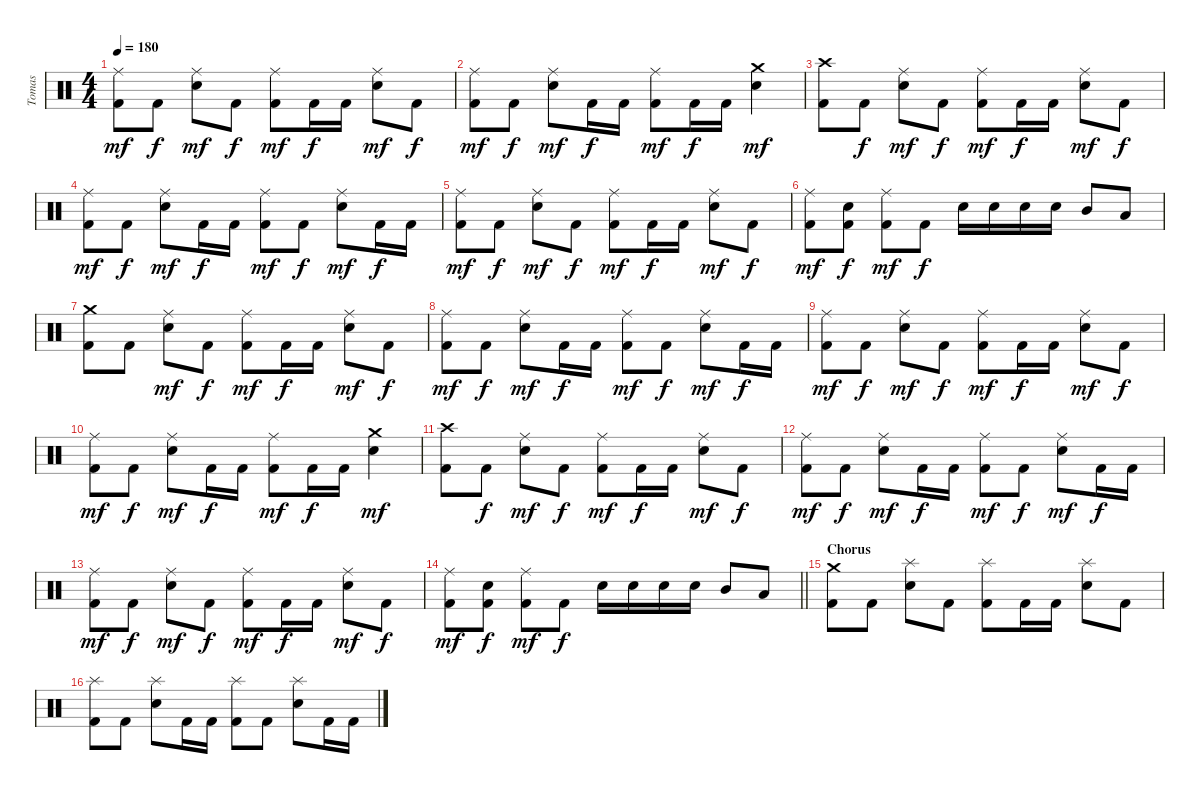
\track ("Tomas" "Tomas") {instrument percussion}
\staff {score}
\articulation defaults
\ts (4 4)
\tempo 180
\clef neutral
\ks c
("Kick (hit) 2" "Ride (middle)").8{dy mf} "Kick (hit) 2".8{dy f} ("Electric Snare (hit)" "Ride (middle)").8{dy mf} "Kick (hit) 2".8{dy f} ("Kick (hit) 2" "Ride (middle)").8{dy mf} "Kick (hit) 2".16{dy f} "Kick (hit) 2".16 ("Electric Snare (hit)" "Ride (middle)").8{dy mf} "Kick (hit) 2".8{dy f} |
("Kick (hit) 2" "Ride (middle)").8{dy mf} "Kick (hit) 2".8{dy f} ("Electric Snare (hit)" "Ride (middle)").8{dy mf} "Kick (hit) 2".16{dy f} "Kick (hit) 2".16 ("Kick (hit) 2" "Ride (middle)").8{dy mf} "Kick (hit) 2".16{dy f} "Kick (hit) 2".16 ("Electric Snare (hit)" "Crash medium (hit)").4{dy mf} |
("Kick (hit) 2" "Crash high (hit)").8 "Kick (hit) 2".8{dy f} ("Electric Snare (hit)" "Ride (middle)").8{dy mf} "Kick (hit) 2".8{dy f} ("Kick (hit) 2" "Ride (middle)").8{dy mf} "Kick (hit) 2".16{dy f} "Kick (hit) 2".16 ("Electric Snare (hit)" "Ride (middle)").8{dy mf} "Kick (hit) 2".8{dy f} |
("Kick (hit) 2" "Ride (middle)").8{dy mf} "Kick (hit) 2".8{dy f} ("Electric Snare (hit)" "Ride (middle)").8{dy mf} "Kick (hit) 2".16{dy f} "Kick (hit) 2".16 ("Kick (hit) 2" "Ride (middle)").8{dy mf} "Kick (hit) 2".8{dy f} ("Electric Snare (hit)" "Ride (middle)").8{dy mf} "Kick (hit) 2".16{dy f} "Kick (hit) 2".16 |
("Kick (hit) 2" "Ride (middle)").8{dy mf} "Kick (hit) 2".8{dy f} ("Electric Snare (hit)" "Ride (middle)").8{dy mf} "Kick (hit) 2".8{dy f} ("Kick (hit) 2" "Ride (middle)").8{dy mf} "Kick (hit) 2".16{dy f} "Kick (hit) 2".16 ("Electric Snare (hit)" "Ride (middle)").8{dy mf} "Kick (hit) 2".8{dy f} |
("Kick (hit) 2" "Ride (middle)").8{dy mf} ("Kick (hit) 2" "Electric Snare (hit)").8{dy f} ("Kick (hit) 2" "Ride (middle)").8{dy mf} "Kick (hit) 2".8{dy f} "Electric Snare (hit)".16 "Electric Snare (hit)".16 "Electric Snare (hit)".16 "Electric Snare (hit)".16 "Mid Tom (hit)".8 "Low Tom (hit)".8 |
("Kick (hit) 2" "Crash medium (hit)").8 "Kick (hit) 2".8 ("Electric Snare (hit)" "Ride (middle)").8{dy mf} "Kick (hit) 2".8{dy f} ("Kick (hit) 2" "Ride (middle)").8{dy mf} "Kick (hit) 2".16{dy f} "Kick (hit) 2".16 ("Electric Snare (hit)" "Ride (middle)").8{dy mf} "Kick (hit) 2".8{dy f} |
("Kick (hit) 2" "Ride (middle)").8{dy mf} "Kick (hit) 2".8{dy f} ("Electric Snare (hit)" "Ride (middle)").8{dy mf} "Kick (hit) 2".16{dy f} "Kick (hit) 2".16 ("Kick (hit) 2" "Ride (middle)").8{dy mf} "Kick (hit) 2".8{dy f} ("Electric Snare (hit)" "Ride (middle)").8{dy mf} "Kick (hit) 2".16{dy f} "Kick (hit) 2".16 |
("Kick (hit) 2" "Ride (middle)").8{dy mf} "Kick (hit) 2".8{dy f} ("Electric Snare (hit)" "Ride (middle)").8{dy mf} "Kick (hit) 2".8{dy f} ("Kick (hit) 2" "Ride (middle)").8{dy mf} "Kick (hit) 2".16{dy f} "Kick (hit) 2".16 ("Electric Snare (hit)" "Ride (middle)").8{dy mf} "Kick (hit) 2".8{dy f} |
("Kick (hit) 2" "Ride (middle)").8{dy mf} "Kick (hit) 2".8{dy f} ("Electric Snare (hit)" "Ride (middle)").8{dy mf} "Kick (hit) 2".16{dy f} "Kick (hit) 2".16 ("Kick (hit) 2" "Ride (middle)").8{dy mf} "Kick (hit) 2".16{dy f} "Kick (hit) 2".16 ("Electric Snare (hit)" "Crash medium (hit)").4{dy mf} |
("Kick (hit) 2" "Crash high (hit)").8 "Kick (hit) 2".8{dy f} ("Electric Snare (hit)" "Ride (middle)").8{dy mf} "Kick (hit) 2".8{dy f} ("Kick (hit) 2" "Ride (middle)").8{dy mf} "Kick (hit) 2".16{dy f} "Kick (hit) 2".16 ("Electric Snare (hit)" "Ride (middle)").8{dy mf} "Kick (hit) 2".8{dy f} |
("Kick (hit) 2" "Ride (middle)").8{dy mf} "Kick (hit) 2".8{dy f} ("Electric Snare (hit)" "Ride (middle)").8{dy mf} "Kick (hit) 2".16{dy f} "Kick (hit) 2".16 ("Kick (hit) 2" "Ride (middle)").8{dy mf} "Kick (hit) 2".8{dy f} ("Electric Snare (hit)" "Ride (middle)").8{dy mf} "Kick (hit) 2".16{dy f} "Kick (hit) 2".16 |
("Kick (hit) 2" "Ride (middle)").8{dy mf} "Kick (hit) 2".8{dy f} ("Electric Snare (hit)" "Ride (middle)").8{dy mf} "Kick (hit) 2".8{dy f} ("Kick (hit) 2" "Ride (middle)").8{dy mf} "Kick (hit) 2".16{dy f} "Kick (hit) 2".16 ("Electric Snare (hit)" "Ride (middle)").8{dy mf} "Kick (hit) 2".8{dy f} |
\barLineRight lightlight
("Kick (hit) 2" "Ride (middle)").8{dy mf} ("Kick (hit) 2" "Electric Snare (hit)").8{dy f} ("Kick (hit) 2" "Ride (middle)").8{dy mf} "Kick (hit) 2".8{dy f} "Electric Snare (hit)".16 "Electric Snare (hit)".16 "Electric Snare (hit)".16 "Electric Snare (hit)".16 "Mid Tom (hit)".8 "Low Tom (hit)".8 |
\section ("" "Chorus")
("Kick (hit) 2" "Crash medium (hit)").8 "Kick (hit) 2".8 ("Electric Snare (hit)" "Splash (hit)").8 "Kick (hit) 2".8 ("Kick (hit) 2" "Splash (hit)").8 "Kick (hit) 2".16 "Kick (hit) 2".16 ("Electric Snare (hit)" "Splash (hit)").8 "Kick (hit) 2".8 |
("Kick (hit) 2" "Splash (hit)").8 "Kick (hit) 2".8 ("Electric Snare (hit)" "Splash (hit)").8 "Kick (hit) 2".16 "Kick (hit) 2".16 ("Kick (hit) 2" "Splash (hit)").8 "Kick (hit) 2".8 ("Electric Snare (hit)" "Splash (hit)").8 "Kick (hit) 2".16 "Kick (hit) 2".16
